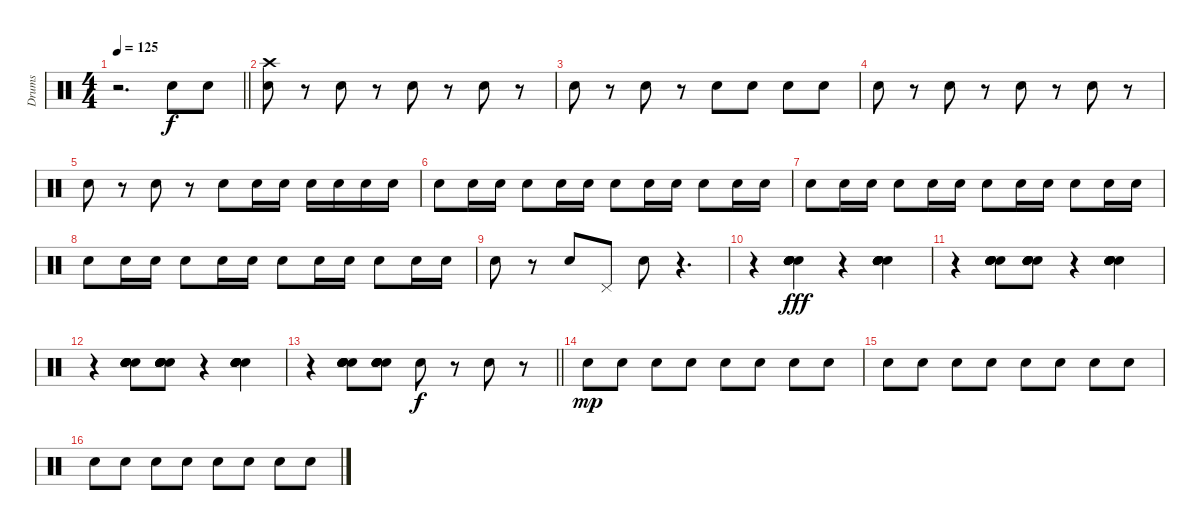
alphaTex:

\track ("Drums" "Drums") {instrument percussion}
\staff {score}
\articulation defaults
\ts (4 4)
\tempo 125
\clef neutral
\barLineRight lightlight
\ks c
r.2{d dy f} "Electric Snare (hit)".8 "Electric Snare (hit)".8 |
("Crash high (hit)" "Electric Snare (hit)").8 r.8 "Electric Snare (hit)".8 r.8 "Electric Snare (hit)".8 r.8 "Electric Snare (hit)".8 r.8 |
"Electric Snare (hit)".8 r.8 "Electric Snare (hit)".8 r.8 "Electric Snare (hit)".8 "Electric Snare (hit)".8 "Electric Snare (hit)".8 "Electric Snare (hit)".8 |
"Electric Snare (hit)".8 r.8 "Electric Snare (hit)".8 r.8 "Electric Snare (hit)".8 r.8 "Electric Snare (hit)".8 r.8 |
"Electric Snare (hit)".8 r.8 "Electric Snare (hit)".8 r.8 "Electric Snare (hit)".8 "Electric Snare (hit)".16 "Electric Snare (hit)".16 "Electric Snare (hit)".16 "Electric Snare (hit)".16 "Electric Snare (hit)".16 "Electric Snare (hit)".16 |
"Electric Snare (hit)".8 "Electric Snare (hit)".16 "Electric Snare (hit)".16 "Electric Snare (hit)".8 "Electric Snare (hit)".16 "Electric Snare (hit)".16 "Electric Snare (hit)".8 "Electric Snare (hit)".16 "Electric Snare (hit)".16 "Electric Snare (hit)".8 "Electric Snare (hit)".16 "Electric Snare (hit)".16 |
"Electric Snare (hit)".8 "Electric Snare (hit)".16 "Electric Snare (hit)".16 "Electric Snare (hit)".8 "Electric Snare (hit)".16 "Electric Snare (hit)".16 "Electric Snare (hit)".8 "Electric Snare (hit)".16 "Electric Snare (hit)".16 "Electric Snare (hit)".8 "Electric Snare (hit)".16 "Electric Snare (hit)".16 |
"Electric Snare (hit)".8 "Electric Snare (hit)".16 "Electric Snare (hit)".16 "Electric Snare (hit)".8 "Electric Snare (hit)".16 "Electric Snare (hit)".16 "Electric Snare (hit)".8 "Electric Snare (hit)".16 "Electric Snare (hit)".16 "Electric Snare (hit)".8 "Electric Snare (hit)".16 "Electric Snare (hit)".16 |
"Electric Snare (hit)".8 r.8 "Electric Snare (hit)".8 "Pedal Hi-Hat (hit)".8 "Electric Snare (hit)".8 r.4{d} |
r.4 ("Hand Clap (hit)" "Hand Clap (hit)" "Hand Clap (hit)" "Hand Clap (hit)" "Hand Clap (hit)" "Hand Clap (hit)").4{dy fff} r.4 ("Hand Clap (hit)" "Hand Clap (hit)" "Hand Clap (hit)" "Hand Clap (hit)" "Hand Clap (hit)" "Hand Clap (hit)").4 |
r.4 ("Hand Clap (hit)" "Hand Clap (hit)" "Hand Clap (hit)" "Hand Clap (hit)" "Hand Clap (hit)" "Hand Clap (hit)").8 ("Hand Clap (hit)" "Hand Clap (hit)" "Hand Clap (hit)" "Hand Clap (hit)" "Hand Clap (hit)" "Hand Clap (hit)").8 r.4 ("Hand Clap (hit)" "Hand Clap (hit)" "Hand Clap (hit)" "Hand Clap (hit)" "Hand Clap (hit)" "Hand Clap (hit)").4 |
r.4 ("Hand Clap (hit)" "Hand Clap (hit)" "Hand Clap (hit)" "Hand Clap (hit)" "Hand Clap (hit)" "Hand Clap (hit)").8 ("Hand Clap (hit)" "Hand Clap (hit)" "Hand Clap (hit)" "Hand Clap (hit)" "Hand Clap (hit)" "Hand Clap (hit)").8 r.4 ("Hand Clap (hit)" "Hand Clap (hit)" "Hand Clap (hit)" "Hand Clap (hit)" "Hand Clap (hit)" "Hand Clap (hit)").4 |
\barLineRight lightlight
r.4 ("Hand Clap (hit)" "Hand Clap (hit)" "Hand Clap (hit)" "Hand Clap (hit)" "Hand Clap (hit)" "Hand Clap (hit)").8 ("Hand Clap (hit)" "Hand Clap (hit)" "Hand Clap (hit)" "Hand Clap (hit)" "Hand Clap (hit)" "Hand Clap (hit)").8 "Electric Snare (hit)".8{dy f} r.8 "Electric Snare (hit)".8 r.8 |
"Electric Snare (hit)".8{dy mp} "Electric Snare (hit)".8 "Electric Snare (hit)".8 "Electric Snare (hit)".8 "Electric Snare (hit)".8 "Electric Snare (hit)".8 "Electric Snare (hit)".8 "Electric Snare (hit)".8 |
"Electric Snare (hit)".8 "Electric Snare (hit)".8 "Electric Snare (hit)".8 "Electric Snare (hit)".8 "Electric Snare (hit)".8 "Electric Snare (hit)".8 "Electric Snare (hit)".8 "Electric Snare (hit)".8 |
"Electric Snare (hit)".8 "Electric Snare (hit)".8 "Electric Snare (hit)".8 "Electric Snare (hit)".8 "Electric Snare (hit)".8 "Electric Snare (hit)".8 "Electric Snare (hit)".8 "Electric Snare (hit)".8
